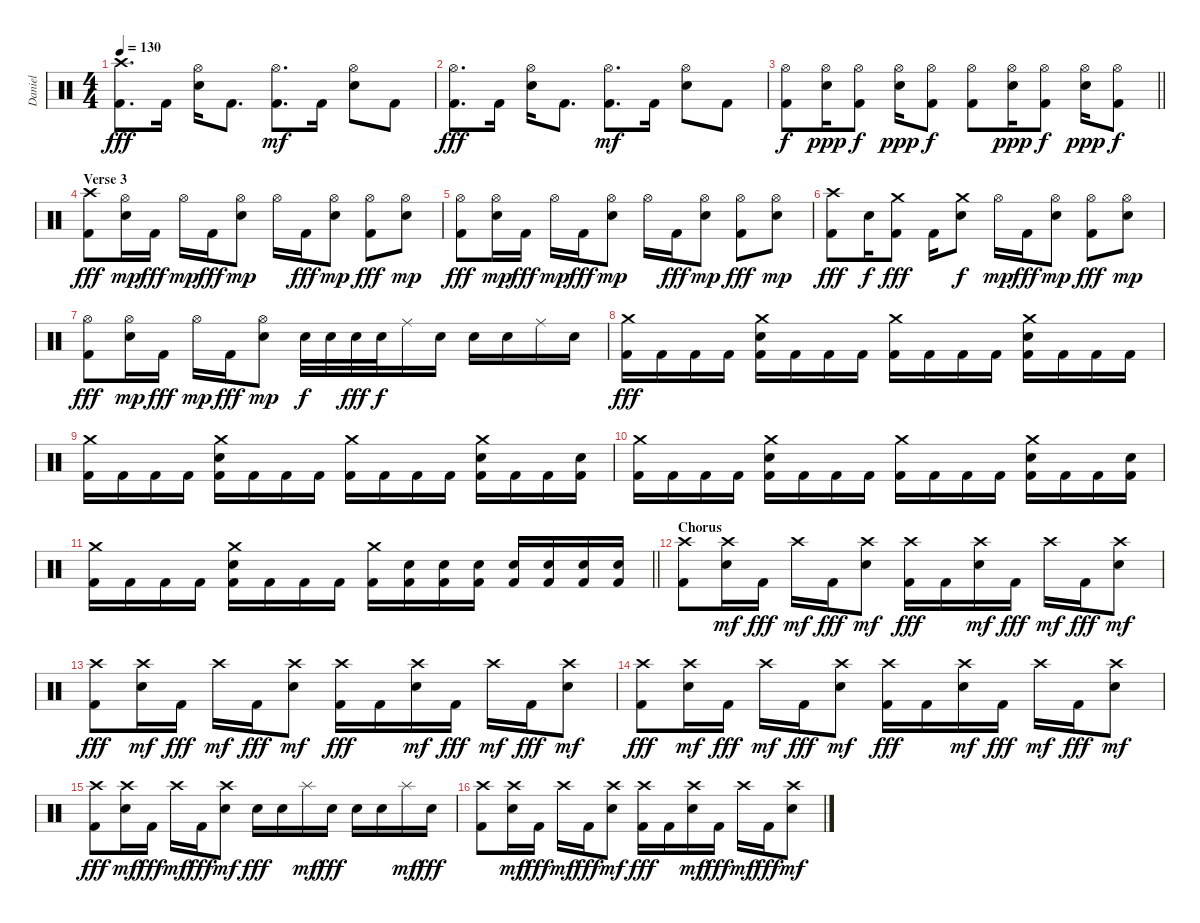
\track ("Daniel" "Daniel") {instrument percussion}
\staff {score}
\articulation defaults
\ts (4 4)
\tempo 130
\clef neutral
\ks c
("Crash high (hit)" "Kick (hit) 2").8{d dy fff} "Kick (hit) 2".16 ("Hi-Hat (open)" "Electric Snare (hit)").16 "Kick (hit) 2".8{d} ("Hi-Hat (open)" "Kick (hit) 2").8{d dy mf} "Kick (hit) 2".16 ("Hi-Hat (open)" "Electric Snare (hit)").8 "Kick (hit) 2".8 |
("Hi-Hat (open)" "Kick (hit) 2").8{d dy fff} "Kick (hit) 2".16 ("Hi-Hat (open)" "Electric Snare (hit)").16 "Kick (hit) 2".8{d} ("Hi-Hat (open)" "Kick (hit) 2").8{d dy mf} "Kick (hit) 2".16 ("Hi-Hat (open)" "Electric Snare (hit)").8 "Kick (hit) 2".8 |
\barLineRight lightlight
("Hi-Hat (open)" "Kick (hit) 2").8{dy f} ("Hi-Hat (open)" "Electric Snare (hit)").16{dy ppp} ("Hi-Hat (open)" "Kick (hit) 2").8{dy f} ("Hi-Hat (open)" "Electric Snare (hit)").16{dy ppp} ("Hi-Hat (open)" "Kick (hit) 2").8{dy f} ("Hi-Hat (open)" "Kick (hit) 2").8 ("Hi-Hat (open)" "Electric Snare (hit)").16{dy ppp} ("Hi-Hat (open)" "Kick (hit) 2").8{dy f} ("Hi-Hat (open)" "Electric Snare (hit)").16{dy ppp} ("Hi-Hat (open)" "Kick (hit) 2").8{dy f} |
\section ("" "Verse 3")
("Crash high (hit)" "Kick (hit) 2").8{dy fff} ("Hi-Hat (open)" "Electric Snare (hit)").16{dy mp} "Kick (hit) 2".16{dy fff} "Hi-Hat (open)".16{dy mp} "Kick (hit) 2".16{dy fff} ("Hi-Hat (open)" "Electric Snare (hit)").8{dy mp} "Hi-Hat (open)".16 "Kick (hit) 2".16{dy fff} ("Hi-Hat (open)" "Electric Snare (hit)").8{dy mp} ("Hi-Hat (open)" "Kick (hit) 2").8{dy fff} ("Hi-Hat (open)" "Electric Snare (hit)").8{dy mp} |
("Hi-Hat (open)" "Kick (hit) 2").8{dy fff} ("Hi-Hat (open)" "Electric Snare (hit)").16{dy mp} "Kick (hit) 2".16{dy fff} "Hi-Hat (open)".16{dy mp} "Kick (hit) 2".16{dy fff} ("Hi-Hat (open)" "Electric Snare (hit)").8{dy mp} "Hi-Hat (open)".16 "Kick (hit) 2".16{dy fff} ("Hi-Hat (open)" "Electric Snare (hit)").8{dy mp} ("Hi-Hat (open)" "Kick (hit) 2").8{dy fff} ("Hi-Hat (open)" "Electric Snare (hit)").8{dy mp} |
("Crash high (hit)" "Kick (hit) 2").8{dy fff} "Electric Snare (hit)".16{dy f} ("Crash medium (hit)" "Kick (hit) 2").8{dy fff} "Kick (hit) 2".16 ("Crash medium (hit)" "Electric Snare (hit)").8{dy f} "Hi-Hat (open)".16{dy mp} "Kick (hit) 2".16{dy fff} ("Hi-Hat (open)" "Electric Snare (hit)").8{dy mp} ("Hi-Hat (open)" "Kick (hit) 2").8{dy fff} ("Hi-Hat (open)" "Electric Snare (hit)").8{dy mp} |
("Hi-Hat (open)" "Kick (hit) 2").8{dy fff} ("Hi-Hat (open)" "Electric Snare (hit)").16{dy mp} "Kick (hit) 2".16{dy fff} "Hi-Hat (open)".16{dy mp} "Kick (hit) 2".16{dy fff} ("Hi-Hat (open)" "Electric Snare (hit)").8{dy mp} "Electric Snare (hit)".32{dy f} "Electric Snare (hit)".32 "Electric Snare (hit)".32{dy fff} "Electric Snare (hit)".32{dy f} "Ride (middle)".16 "Electric Snare (hit)".16 "Electric Snare (hit)".16 "Electric Snare (hit)".16 "Ride (middle)".16 "Electric Snare (hit)".16 |
("Crash medium (hit)" "Kick (hit) 2").16{dy fff} "Kick (hit) 2".16 "Kick (hit) 2".16 "Kick (hit) 2".16 ("Crash medium (hit)" "Electric Snare (hit)" "Kick (hit) 2").16 "Kick (hit) 2".16 "Kick (hit) 2".16 "Kick (hit) 2".16 ("Crash medium (hit)" "Kick (hit) 2").16 "Kick (hit) 2".16 "Kick (hit) 2".16 "Kick (hit) 2".16 ("Crash medium (hit)" "Electric Snare (hit)" "Kick (hit) 2").16 "Kick (hit) 2".16 "Kick (hit) 2".16 "Kick (hit) 2".16 |
("Crash medium (hit)" "Kick (hit) 2").16 "Kick (hit) 2".16 "Kick (hit) 2".16 "Kick (hit) 2".16 ("Crash medium (hit)" "Electric Snare (hit)" "Kick (hit) 2").16 "Kick (hit) 2".16 "Kick (hit) 2".16 "Kick (hit) 2".16 ("Crash medium (hit)" "Kick (hit) 2").16 "Kick (hit) 2".16 "Kick (hit) 2".16 "Kick (hit) 2".16 ("Crash medium (hit)" "Electric Snare (hit)" "Kick (hit) 2").16 "Kick (hit) 2".16 "Kick (hit) 2".16 ("Electric Snare (hit)" "Kick (hit) 2").16 |
("Crash medium (hit)" "Kick (hit) 2").16 "Kick (hit) 2".16 "Kick (hit) 2".16 "Kick (hit) 2".16 ("Crash medium (hit)" "Electric Snare (hit)" "Kick (hit) 2").16 "Kick (hit) 2".16 "Kick (hit) 2".16 "Kick (hit) 2".16 ("Crash medium (hit)" "Kick (hit) 2").16 "Kick (hit) 2".16 "Kick (hit) 2".16 "Kick (hit) 2".16 ("Crash medium (hit)" "Electric Snare (hit)" "Kick (hit) 2").16 "Kick (hit) 2".16 "Kick (hit) 2".16 ("Electric Snare (hit)" "Kick (hit) 2").16 |
\barLineRight lightlight
("Crash medium (hit)" "Kick (hit) 2").16 "Kick (hit) 2".16 "Kick (hit) 2".16 "Kick (hit) 2".16 ("Crash medium (hit)" "Electric Snare (hit)" "Kick (hit) 2").16 "Kick (hit) 2".16 "Kick (hit) 2".16 "Kick (hit) 2".16 ("Crash medium (hit)" "Kick (hit) 2").16 ("Electric Snare (hit)" "Kick (hit) 2").16 ("Electric Snare (hit)" "Kick (hit) 2").16 ("Electric Snare (hit)" "Kick (hit) 2").16 ("Electric Snare (hit)" "Kick (hit) 2").16 ("Electric Snare (hit)" "Kick (hit) 2").16 ("Electric Snare (hit)" "Kick (hit) 2").16 ("Electric Snare (hit)" "Kick (hit) 2").16 |
\section ("" "Chorus")
("Crash high (hit)" "Kick (hit) 2").8 ("Crash high (hit)" "Electric Snare (hit)").16{dy mf} "Kick (hit) 2".16{dy fff} "Crash high (hit)".16{dy mf} "Kick (hit) 2".16{dy fff} ("Crash high (hit)" "Electric Snare (hit)").8{dy mf} ("Crash high (hit)" "Kick (hit) 2").16{dy fff} "Kick (hit) 2".16 ("Crash high (hit)" "Electric Snare (hit)").16{dy mf} "Kick (hit) 2".16{dy fff} "Crash high (hit)".16{dy mf} "Kick (hit) 2".16{dy fff} ("Crash high (hit)" "Electric Snare (hit)").8{dy mf} |
("Crash high (hit)" "Kick (hit) 2").8{dy fff} ("Crash high (hit)" "Electric Snare (hit)").16{dy mf} "Kick (hit) 2".16{dy fff} "Crash high (hit)".16{dy mf} "Kick (hit) 2".16{dy fff} ("Crash high (hit)" "Electric Snare (hit)").8{dy mf} ("Crash high (hit)" "Kick (hit) 2").16{dy fff} "Kick (hit) 2".16 ("Crash high (hit)" "Electric Snare (hit)").16{dy mf} "Kick (hit) 2".16{dy fff} "Crash high (hit)".16{dy mf} "Kick (hit) 2".16{dy fff} ("Crash high (hit)" "Electric Snare (hit)").8{dy mf} |
("Crash high (hit)" "Kick (hit) 2").8{dy fff} ("Crash high (hit)" "Electric Snare (hit)").16{dy mf} "Kick (hit) 2".16{dy fff} "Crash high (hit)".16{dy mf} "Kick (hit) 2".16{dy fff} ("Crash high (hit)" "Electric Snare (hit)").8{dy mf} ("Crash high (hit)" "Kick (hit) 2").16{dy fff} "Kick (hit) 2".16 ("Crash high (hit)" "Electric Snare (hit)").16{dy mf} "Kick (hit) 2".16{dy fff} "Crash high (hit)".16{dy mf} "Kick (hit) 2".16{dy fff} ("Crash high (hit)" "Electric Snare (hit)").8{dy mf} |
("Crash high (hit)" "Kick (hit) 2").8{dy fff} ("Crash high (hit)" "Electric Snare (hit)").16{dy mf} "Kick (hit) 2".16{dy fff} "Crash high (hit)".16{dy mf} "Kick (hit) 2".16{dy fff} ("Crash high (hit)" "Electric Snare (hit)").8{dy mf} "Electric Snare (hit)".16{dy fff} "Electric Snare (hit)".16 "Splash (hit)".16{dy mf} "Electric Snare (hit)".16{dy fff} "Electric Snare (hit)".16 "Electric Snare (hit)".16 "Splash (hit)".16{dy mf} "Electric Snare (hit)".16{dy fff} |
("Crash high (hit)" "Kick (hit) 2").8 ("Crash high (hit)" "Electric Snare (hit)").16{dy mf} "Kick (hit) 2".16{dy fff} "Crash high (hit)".16{dy mf} "Kick (hit) 2".16{dy fff} ("Crash high (hit)" "Electric Snare (hit)").8{dy mf} ("Crash high (hit)" "Kick (hit) 2").16{dy fff} "Kick (hit) 2".16 ("Crash high (hit)" "Electric Snare (hit)").16{dy mf} "Kick (hit) 2".16{dy fff} "Crash high (hit)".16{dy mf} "Kick (hit) 2".16{dy fff} ("Crash high (hit)" "Electric Snare (hit)").8{dy mf}
